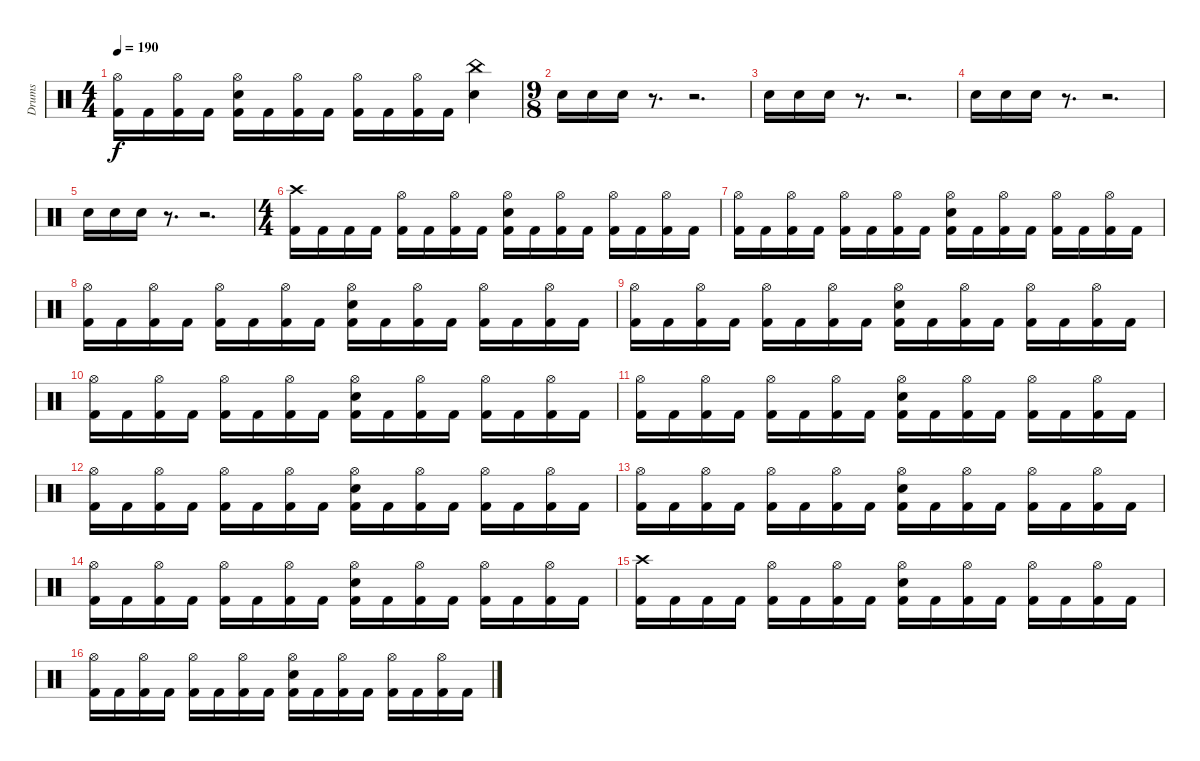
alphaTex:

\track ("Drums" "Drums") {instrument percussion}
\staff {score}
\articulation defaults
\ts (4 4)
\tempo 190
\clef neutral
\ks c
("Hi-Hat (open)" "Kick (hit) 2").16{dy f} "Kick (hit) 2".16 ("Hi-Hat (open)" "Kick (hit) 2").16 "Kick (hit) 2".16 ("Hi-Hat (open)" "Electric Snare (hit)" "Kick (hit) 2").16 "Kick (hit) 2".16 ("Hi-Hat (open)" "Kick (hit) 2").16 "Kick (hit) 2".16 ("Hi-Hat (open)" "Kick (hit) 2").16 "Kick (hit) 2".16 ("Hi-Hat (open)" "Kick (hit) 2").16 "Kick (hit) 2".16 ("China (hit)" "Electric Snare (hit)").4 |
\ts (9 8)
"Electric Snare (hit)".16 "Electric Snare (hit)".16 "Electric Snare (hit)".16 r.8{d} r.2{d} |
"Electric Snare (hit)".16 "Electric Snare (hit)".16 "Electric Snare (hit)".16 r.8{d} r.2{d} |
"Electric Snare (hit)".16 "Electric Snare (hit)".16 "Electric Snare (hit)".16 r.8{d} r.2{d} |
"Electric Snare (hit)".16 "Electric Snare (hit)".16 "Electric Snare (hit)".16 r.8{d} r.2{d} |
\ts (4 4)
("Crash high (hit)" "Kick (hit) 2").16 "Kick (hit) 2".16 "Kick (hit) 2".16 "Kick (hit) 2".16 ("Hi-Hat (open)" "Kick (hit) 2").16 "Kick (hit) 2".16 ("Hi-Hat (open)" "Kick (hit) 2").16 "Kick (hit) 2".16 ("Hi-Hat (open)" "Electric Snare (hit)" "Kick (hit) 2").16 "Kick (hit) 2".16 ("Hi-Hat (open)" "Kick (hit) 2").16 "Kick (hit) 2".16 ("Hi-Hat (open)" "Kick (hit) 2").16 "Kick (hit) 2".16 ("Hi-Hat (open)" "Kick (hit) 2").16 "Kick (hit) 2".16 |
("Hi-Hat (open)" "Kick (hit) 2").16 "Kick (hit) 2".16 ("Hi-Hat (open)" "Kick (hit) 2").16 "Kick (hit) 2".16 ("Hi-Hat (open)" "Kick (hit) 2").16 "Kick (hit) 2".16 ("Hi-Hat (open)" "Kick (hit) 2").16 "Kick (hit) 2".16 ("Hi-Hat (open)" "Electric Snare (hit)" "Kick (hit) 2").16 "Kick (hit) 2".16 ("Hi-Hat (open)" "Kick (hit) 2").16 "Kick (hit) 2".16 ("Hi-Hat (open)" "Kick (hit) 2").16 "Kick (hit) 2".16 ("Hi-Hat (open)" "Kick (hit) 2").16 "Kick (hit) 2".16 |
("Hi-Hat (open)" "Kick (hit) 2").16 "Kick (hit) 2".16 ("Hi-Hat (open)" "Kick (hit) 2").16 "Kick (hit) 2".16 ("Hi-Hat (open)" "Kick (hit) 2").16 "Kick (hit) 2".16 ("Hi-Hat (open)" "Kick (hit) 2").16 "Kick (hit) 2".16 ("Hi-Hat (open)" "Electric Snare (hit)" "Kick (hit) 2").16 "Kick (hit) 2".16 ("Hi-Hat (open)" "Kick (hit) 2").16 "Kick (hit) 2".16 ("Hi-Hat (open)" "Kick (hit) 2").16 "Kick (hit) 2".16 ("Hi-Hat (open)" "Kick (hit) 2").16 "Kick (hit) 2".16 |
("Hi-Hat (open)" "Kick (hit) 2").16 "Kick (hit) 2".16 ("Hi-Hat (open)" "Kick (hit) 2").16 "Kick (hit) 2".16 ("Hi-Hat (open)" "Kick (hit) 2").16 "Kick (hit) 2".16 ("Hi-Hat (open)" "Kick (hit) 2").16 "Kick (hit) 2".16 ("Hi-Hat (open)" "Electric Snare (hit)" "Kick (hit) 2").16 "Kick (hit) 2".16 ("Hi-Hat (open)" "Kick (hit) 2").16 "Kick (hit) 2".16 ("Hi-Hat (open)" "Kick (hit) 2").16 "Kick (hit) 2".16 ("Hi-Hat (open)" "Kick (hit) 2").16 "Kick (hit) 2".16 |
("Hi-Hat (open)" "Kick (hit) 2").16 "Kick (hit) 2".16 ("Hi-Hat (open)" "Kick (hit) 2").16 "Kick (hit) 2".16 ("Hi-Hat (open)" "Kick (hit) 2").16 "Kick (hit) 2".16 ("Hi-Hat (open)" "Kick (hit) 2").16 "Kick (hit) 2".16 ("Hi-Hat (open)" "Electric Snare (hit)" "Kick (hit) 2").16 "Kick (hit) 2".16 ("Hi-Hat (open)" "Kick (hit) 2").16 "Kick (hit) 2".16 ("Hi-Hat (open)" "Kick (hit) 2").16 "Kick (hit) 2".16 ("Hi-Hat (open)" "Kick (hit) 2").16 "Kick (hit) 2".16 |
("Hi-Hat (open)" "Kick (hit) 2").16 "Kick (hit) 2".16 ("Hi-Hat (open)" "Kick (hit) 2").16 "Kick (hit) 2".16 ("Hi-Hat (open)" "Kick (hit) 2").16 "Kick (hit) 2".16 ("Hi-Hat (open)" "Kick (hit) 2").16 "Kick (hit) 2".16 ("Hi-Hat (open)" "Electric Snare (hit)" "Kick (hit) 2").16 "Kick (hit) 2".16 ("Hi-Hat (open)" "Kick (hit) 2").16 "Kick (hit) 2".16 ("Hi-Hat (open)" "Kick (hit) 2").16 "Kick (hit) 2".16 ("Hi-Hat (open)" "Kick (hit) 2").16 "Kick (hit) 2".16 |
("Hi-Hat (open)" "Kick (hit) 2").16 "Kick (hit) 2".16 ("Hi-Hat (open)" "Kick (hit) 2").16 "Kick (hit) 2".16 ("Hi-Hat (open)" "Kick (hit) 2").16 "Kick (hit) 2".16 ("Hi-Hat (open)" "Kick (hit) 2").16 "Kick (hit) 2".16 ("Hi-Hat (open)" "Electric Snare (hit)" "Kick (hit) 2").16 "Kick (hit) 2".16 ("Hi-Hat (open)" "Kick (hit) 2").16 "Kick (hit) 2".16 ("Hi-Hat (open)" "Kick (hit) 2").16 "Kick (hit) 2".16 ("Hi-Hat (open)" "Kick (hit) 2").16 "Kick (hit) 2".16 |
("Hi-Hat (open)" "Kick (hit) 2").16 "Kick (hit) 2".16 ("Hi-Hat (open)" "Kick (hit) 2").16 "Kick (hit) 2".16 ("Hi-Hat (open)" "Kick (hit) 2").16 "Kick (hit) 2".16 ("Hi-Hat (open)" "Kick (hit) 2").16 "Kick (hit) 2".16 ("Hi-Hat (open)" "Electric Snare (hit)" "Kick (hit) 2").16 "Kick (hit) 2".16 ("Hi-Hat (open)" "Kick (hit) 2").16 "Kick (hit) 2".16 ("Hi-Hat (open)" "Kick (hit) 2").16 "Kick (hit) 2".16 ("Hi-Hat (open)" "Kick (hit) 2").16 "Kick (hit) 2".16 |
("Hi-Hat (open)" "Kick (hit) 2").16 "Kick (hit) 2".16 ("Hi-Hat (open)" "Kick (hit) 2").16 "Kick (hit) 2".16 ("Hi-Hat (open)" "Kick (hit) 2").16 "Kick (hit) 2".16 ("Hi-Hat (open)" "Kick (hit) 2").16 "Kick (hit) 2".16 ("Hi-Hat (open)" "Electric Snare (hit)" "Kick (hit) 2").16 "Kick (hit) 2".16 ("Hi-Hat (open)" "Kick (hit) 2").16 "Kick (hit) 2".16 ("Hi-Hat (open)" "Kick (hit) 2").16 "Kick (hit) 2".16 ("Hi-Hat (open)" "Kick (hit) 2").16 "Kick (hit) 2".16 |
("Crash high (hit)" "Kick (hit) 2").16 "Kick (hit) 2".16 "Kick (hit) 2".16 "Kick (hit) 2".16 ("Hi-Hat (open)" "Kick (hit) 2").16 "Kick (hit) 2".16 ("Hi-Hat (open)" "Kick (hit) 2").16 "Kick (hit) 2".16 ("Hi-Hat (open)" "Electric Snare (hit)" "Kick (hit) 2").16 "Kick (hit) 2".16 ("Hi-Hat (open)" "Kick (hit) 2").16 "Kick (hit) 2".16 ("Hi-Hat (open)" "Kick (hit) 2").16 "Kick (hit) 2".16 ("Hi-Hat (open)" "Kick (hit) 2").16 "Kick (hit) 2".16 |
("Hi-Hat (open)" "Kick (hit) 2").16 "Kick (hit) 2".16 ("Hi-Hat (open)" "Kick (hit) 2").16 "Kick (hit) 2".16 ("Hi-Hat (open)" "Kick (hit) 2").16 "Kick (hit) 2".16 ("Hi-Hat (open)" "Kick (hit) 2").16 "Kick (hit) 2".16 ("Hi-Hat (open)" "Electric Snare (hit)" "Kick (hit) 2").16 "Kick (hit) 2".16 ("Hi-Hat (open)" "Kick (hit) 2").16 "Kick (hit) 2".16 ("Hi-Hat (open)" "Kick (hit) 2").16 "Kick (hit) 2".16 ("Hi-Hat (open)" "Kick (hit) 2").16 "Kick (hit) 2".16
